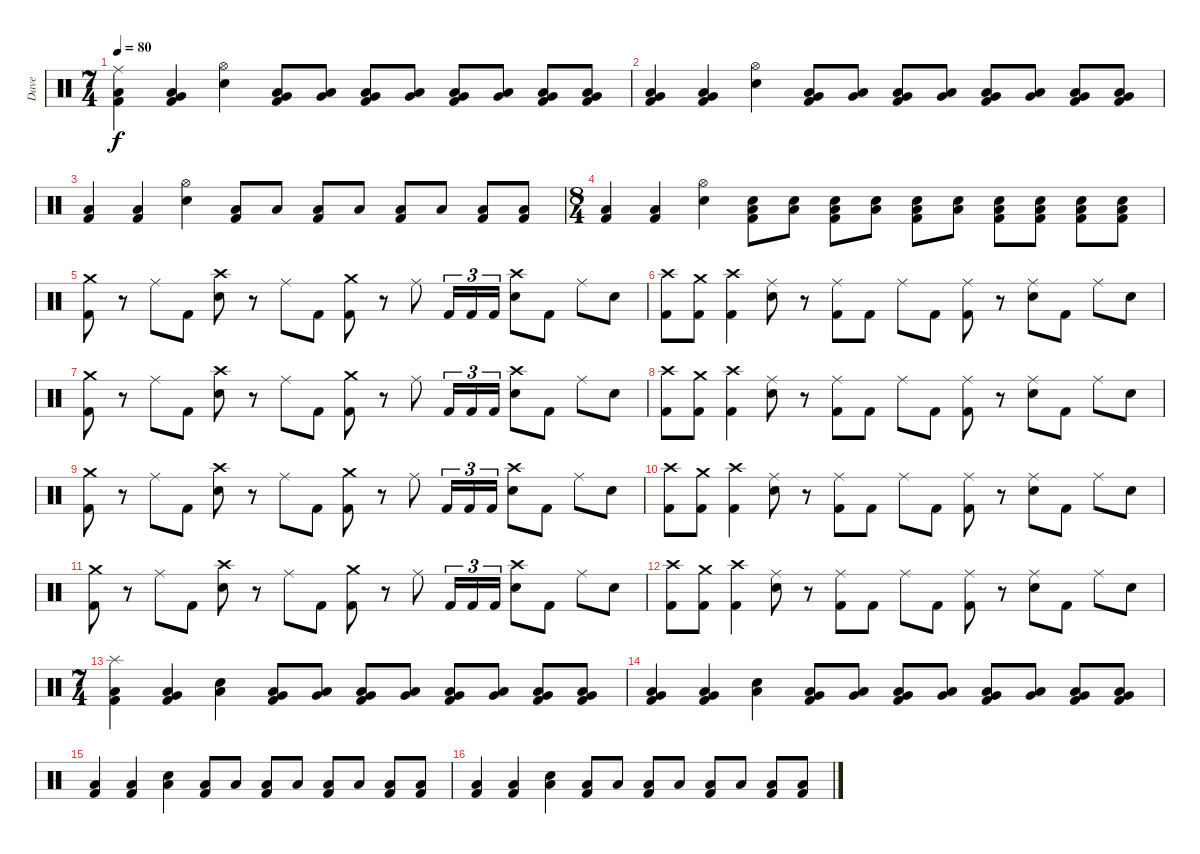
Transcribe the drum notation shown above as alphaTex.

\track ("Dave" "Dave") {instrument percussion}
\staff {score}
\articulation defaults
\ts (7 4)
\tempo 80
\clef neutral
\ks c
("Ride (middle)" "Low Floor Tom (hit)" "Kick (hit) 2").4{dy f} ("Very Low Tom (hit)" "Low Floor Tom (hit)" "Kick (hit) 2").4 ("Hi-Hat (open)" "Electric Snare (hit)").4 ("Very Low Tom (hit)" "Low Floor Tom (hit)" "Kick (hit) 2").8 ("Very Low Tom (hit)" "Low Floor Tom (hit)").8 ("Very Low Tom (hit)" "Low Floor Tom (hit)" "Kick (hit) 2").8 ("Very Low Tom (hit)" "Low Floor Tom (hit)").8 ("Very Low Tom (hit)" "Low Floor Tom (hit)" "Kick (hit) 2").8 ("Very Low Tom (hit)" "Low Floor Tom (hit)").8 ("Very Low Tom (hit)" "Low Floor Tom (hit)" "Kick (hit) 2").8 ("Very Low Tom (hit)" "Low Floor Tom (hit)" "Kick (hit) 2").8 |
("Very Low Tom (hit)" "Low Floor Tom (hit)" "Kick (hit) 2").4 ("Very Low Tom (hit)" "Low Floor Tom (hit)" "Kick (hit) 2").4 ("Hi-Hat (open)" "Electric Snare (hit)").4 ("Very Low Tom (hit)" "Low Floor Tom (hit)" "Kick (hit) 2").8 ("Very Low Tom (hit)" "Low Floor Tom (hit)").8 ("Very Low Tom (hit)" "Low Floor Tom (hit)" "Kick (hit) 2").8 ("Very Low Tom (hit)" "Low Floor Tom (hit)").8 ("Very Low Tom (hit)" "Low Floor Tom (hit)" "Kick (hit) 2").8 ("Very Low Tom (hit)" "Low Floor Tom (hit)").8 ("Very Low Tom (hit)" "Low Floor Tom (hit)" "Kick (hit) 2").8 ("Very Low Tom (hit)" "Low Floor Tom (hit)" "Kick (hit) 2").8 |
("Low Floor Tom (hit)" "Kick (hit) 2").4 ("Low Floor Tom (hit)" "Kick (hit) 2").4 ("Hi-Hat (open)" "Electric Snare (hit)").4 ("Low Floor Tom (hit)" "Kick (hit) 2").8 "Low Floor Tom (hit)".8 ("Low Floor Tom (hit)" "Kick (hit) 2").8 "Low Floor Tom (hit)".8 ("Low Floor Tom (hit)" "Kick (hit) 2").8 "Low Floor Tom (hit)".8 ("Low Floor Tom (hit)" "Kick (hit) 2").8 ("Low Floor Tom (hit)" "Kick (hit) 2").8 |
\ts (8 4)
("Low Floor Tom (hit)" "Kick (hit) 2").4 ("Low Floor Tom (hit)" "Kick (hit) 2").4 ("Hi-Hat (open)" "Electric Snare (hit)").4 ("Electric Snare (hit)" "Low Floor Tom (hit)" "Kick (hit) 2").8 ("Electric Snare (hit)" "Low Floor Tom (hit)").8 ("Electric Snare (hit)" "Low Floor Tom (hit)" "Kick (hit) 2").8 ("Electric Snare (hit)" "Low Floor Tom (hit)").8 ("Electric Snare (hit)" "Low Floor Tom (hit)" "Kick (hit) 2").8 ("Electric Snare (hit)" "Low Floor Tom (hit)").8 ("Electric Snare (hit)" "Low Floor Tom (hit)" "Kick (hit) 2").8 ("Electric Snare (hit)" "Low Floor Tom (hit)" "Kick (hit) 2").8 ("Electric Snare (hit)" "Low Floor Tom (hit)" "Kick (hit) 2").8 ("Electric Snare (hit)" "Low Floor Tom (hit)" "Kick (hit) 2").8 |
("Crash medium (hit)" "Kick (hit) 2").8 r.8 "Ride (middle)".8 "Kick (hit) 2".8 ("Crash high (hit)" "Electric Snare (hit)").8 r.8 "Ride (middle)".8 "Kick (hit) 2".8 ("Crash medium (hit)" "Kick (hit) 2").8 r.8 "Ride (middle)".8 "Kick (hit) 2".16{tu (3 2)} "Kick (hit) 2".16{tu (3 2)} "Kick (hit) 2".16{tu (3 2)} ("Crash high (hit)" "Electric Snare (hit)").8 "Kick (hit) 2".8 "Ride (middle)".8 "Electric Snare (hit)".8 |
("Crash high (hit)" "Kick (hit) 2").8 ("Crash medium (hit)" "Kick (hit) 2").8 ("Crash high (hit)" "Kick (hit) 2").4 ("Ride (middle)" "Electric Snare (hit)").8 r.8 ("Ride (middle)" "Kick (hit) 2").8 "Kick (hit) 2".8 "Ride (middle)".8 "Kick (hit) 2".8 ("Ride (middle)" "Kick (hit) 2").8 r.8 ("Ride (middle)" "Electric Snare (hit)").8 "Kick (hit) 2".8 "Ride (middle)".8 "Electric Snare (hit)".8 |
("Crash medium (hit)" "Kick (hit) 2").8 r.8 "Ride (middle)".8 "Kick (hit) 2".8 ("Crash high (hit)" "Electric Snare (hit)").8 r.8 "Ride (middle)".8 "Kick (hit) 2".8 ("Crash medium (hit)" "Kick (hit) 2").8 r.8 "Ride (middle)".8 "Kick (hit) 2".16{tu (3 2)} "Kick (hit) 2".16{tu (3 2)} "Kick (hit) 2".16{tu (3 2)} ("Crash high (hit)" "Electric Snare (hit)").8 "Kick (hit) 2".8 "Ride (middle)".8 "Electric Snare (hit)".8 |
("Crash high (hit)" "Kick (hit) 2").8 ("Crash medium (hit)" "Kick (hit) 2").8 ("Crash high (hit)" "Kick (hit) 2").4 ("Ride (middle)" "Electric Snare (hit)").8 r.8 ("Ride (middle)" "Kick (hit) 2").8 "Kick (hit) 2".8 "Ride (middle)".8 "Kick (hit) 2".8 ("Ride (middle)" "Kick (hit) 2").8 r.8 ("Ride (middle)" "Electric Snare (hit)").8 "Kick (hit) 2".8 "Ride (middle)".8 "Electric Snare (hit)".8 |
("Crash medium (hit)" "Kick (hit) 2").8 r.8 "Ride (middle)".8 "Kick (hit) 2".8 ("Crash high (hit)" "Electric Snare (hit)").8 r.8 "Ride (middle)".8 "Kick (hit) 2".8 ("Crash medium (hit)" "Kick (hit) 2").8 r.8 "Ride (middle)".8 "Kick (hit) 2".16{tu (3 2)} "Kick (hit) 2".16{tu (3 2)} "Kick (hit) 2".16{tu (3 2)} ("Crash high (hit)" "Electric Snare (hit)").8 "Kick (hit) 2".8 "Ride (middle)".8 "Electric Snare (hit)".8 |
("Crash high (hit)" "Kick (hit) 2").8 ("Crash medium (hit)" "Kick (hit) 2").8 ("Crash high (hit)" "Kick (hit) 2").4 ("Ride (middle)" "Electric Snare (hit)").8 r.8 ("Ride (middle)" "Kick (hit) 2").8 "Kick (hit) 2".8 "Ride (middle)".8 "Kick (hit) 2".8 ("Ride (middle)" "Kick (hit) 2").8 r.8 ("Ride (middle)" "Electric Snare (hit)").8 "Kick (hit) 2".8 "Ride (middle)".8 "Electric Snare (hit)".8 |
("Crash medium (hit)" "Kick (hit) 2").8 r.8 "Ride (middle)".8 "Kick (hit) 2".8 ("Crash high (hit)" "Electric Snare (hit)").8 r.8 "Ride (middle)".8 "Kick (hit) 2".8 ("Crash medium (hit)" "Kick (hit) 2").8 r.8 "Ride (middle)".8 "Kick (hit) 2".16{tu (3 2)} "Kick (hit) 2".16{tu (3 2)} "Kick (hit) 2".16{tu (3 2)} ("Crash high (hit)" "Electric Snare (hit)").8 "Kick (hit) 2".8 "Ride (middle)".8 "Electric Snare (hit)".8 |
("Crash high (hit)" "Kick (hit) 2").8 ("Crash medium (hit)" "Kick (hit) 2").8 ("Crash high (hit)" "Kick (hit) 2").4 ("Ride (middle)" "Electric Snare (hit)").8 r.8 ("Ride (middle)" "Kick (hit) 2").8 "Kick (hit) 2".8 "Ride (middle)".8 "Kick (hit) 2".8 ("Ride (middle)" "Kick (hit) 2").8 r.8 ("Ride (middle)" "Electric Snare (hit)").8 "Kick (hit) 2".8 "Ride (middle)".8 "Electric Snare (hit)".8 |
\ts (7 4)
("Splash (hit)" "Low Floor Tom (hit)" "Kick (hit) 2").4 ("Very Low Tom (hit)" "Low Floor Tom (hit)" "Kick (hit) 2").4 ("Low Floor Tom (hit)" "Electric Snare (hit)").4 ("Very Low Tom (hit)" "Low Floor Tom (hit)" "Kick (hit) 2").8 ("Very Low Tom (hit)" "Low Floor Tom (hit)").8 ("Very Low Tom (hit)" "Low Floor Tom (hit)" "Kick (hit) 2").8 ("Very Low Tom (hit)" "Low Floor Tom (hit)").8 ("Very Low Tom (hit)" "Low Floor Tom (hit)" "Kick (hit) 2").8 ("Very Low Tom (hit)" "Low Floor Tom (hit)").8 ("Very Low Tom (hit)" "Low Floor Tom (hit)" "Kick (hit) 2").8 ("Very Low Tom (hit)" "Low Floor Tom (hit)" "Kick (hit) 2").8 |
("Very Low Tom (hit)" "Low Floor Tom (hit)" "Kick (hit) 2").4 ("Very Low Tom (hit)" "Low Floor Tom (hit)" "Kick (hit) 2").4 ("Low Floor Tom (hit)" "Electric Snare (hit)").4 ("Very Low Tom (hit)" "Low Floor Tom (hit)" "Kick (hit) 2").8 ("Very Low Tom (hit)" "Low Floor Tom (hit)").8 ("Very Low Tom (hit)" "Low Floor Tom (hit)" "Kick (hit) 2").8 ("Very Low Tom (hit)" "Low Floor Tom (hit)").8 ("Very Low Tom (hit)" "Low Floor Tom (hit)" "Kick (hit) 2").8 ("Very Low Tom (hit)" "Low Floor Tom (hit)").8 ("Very Low Tom (hit)" "Low Floor Tom (hit)" "Kick (hit) 2").8 ("Very Low Tom (hit)" "Low Floor Tom (hit)" "Kick (hit) 2").8 |
("Low Floor Tom (hit)" "Kick (hit) 2").4 ("Low Floor Tom (hit)" "Kick (hit) 2").4 ("Low Floor Tom (hit)" "Electric Snare (hit)").4 ("Low Floor Tom (hit)" "Kick (hit) 2").8 "Low Floor Tom (hit)".8 ("Low Floor Tom (hit)" "Kick (hit) 2").8 "Low Floor Tom (hit)".8 ("Low Floor Tom (hit)" "Kick (hit) 2").8 "Low Floor Tom (hit)".8 ("Low Floor Tom (hit)" "Kick (hit) 2").8 ("Low Floor Tom (hit)" "Kick (hit) 2").8 |
("Low Floor Tom (hit)" "Kick (hit) 2").4 ("Low Floor Tom (hit)" "Kick (hit) 2").4 ("Low Floor Tom (hit)" "Electric Snare (hit)").4 ("Low Floor Tom (hit)" "Kick (hit) 2").8 "Low Floor Tom (hit)".8 ("Low Floor Tom (hit)" "Kick (hit) 2").8 "Low Floor Tom (hit)".8 ("Low Floor Tom (hit)" "Kick (hit) 2").8 "Low Floor Tom (hit)".8 ("Low Floor Tom (hit)" "Kick (hit) 2").8 ("Low Floor Tom (hit)" "Kick (hit) 2").8
